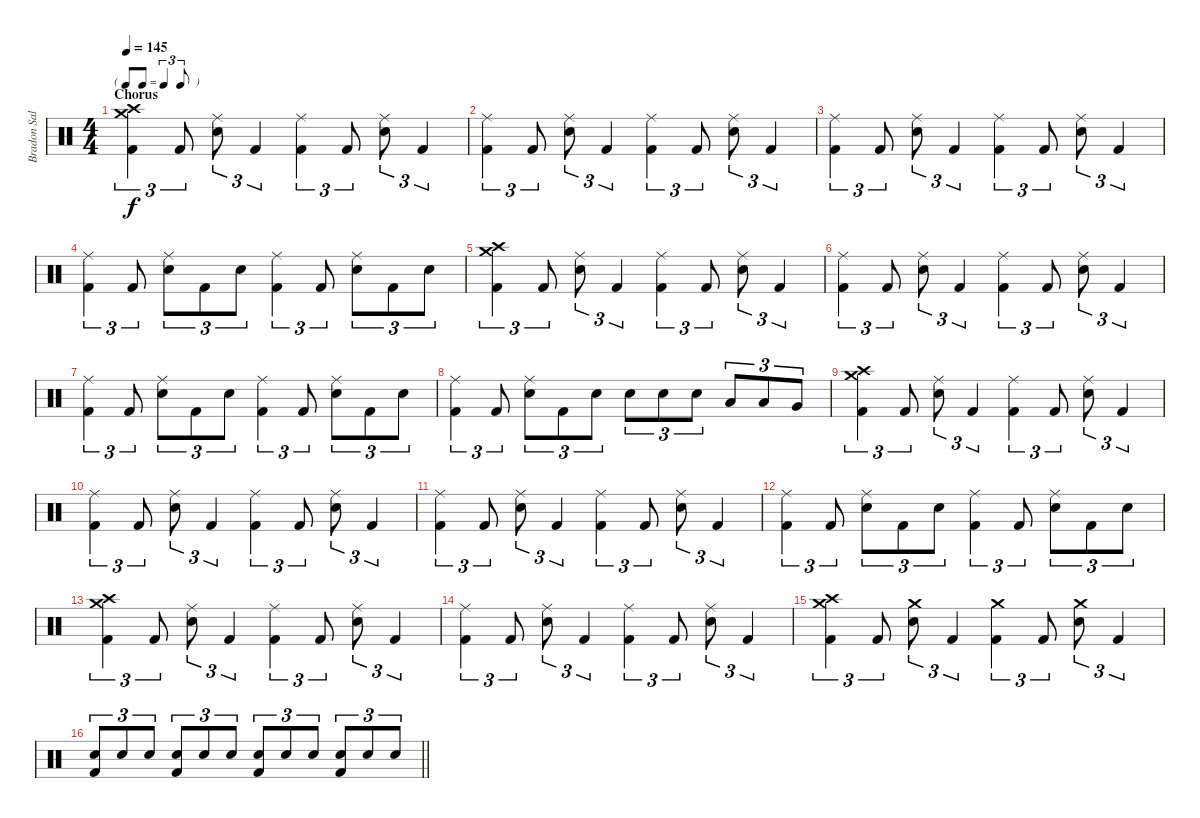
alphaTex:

\track ("Bradon Saller" "Bradon Sal") {instrument percussion}
\staff {score}
\articulation defaults
\ts (4 4)
\tf triplet8th
\section ("" "Chorus")
\tempo 145
\clef neutral
\ks c
("Crash medium (hit)" "Crash high (hit)" "Kick (hit) 2").4{tu (3 2) dy f} "Kick (hit) 2".8{tu (3 2)} ("Ride (middle)" "Electric Snare (hit)").8{tu (3 2)} "Kick (hit) 2".4{tu (3 2)} ("Ride (middle)" "Kick (hit) 2").4{tu (3 2)} "Kick (hit) 2".8{tu (3 2)} ("Ride (middle)" "Electric Snare (hit)").8{tu (3 2)} "Kick (hit) 2".4{tu (3 2)} |
("Ride (middle)" "Kick (hit) 2").4{tu (3 2)} "Kick (hit) 2".8{tu (3 2)} ("Ride (middle)" "Electric Snare (hit)").8{tu (3 2)} "Kick (hit) 2".4{tu (3 2)} ("Ride (middle)" "Kick (hit) 2").4{tu (3 2)} "Kick (hit) 2".8{tu (3 2)} ("Ride (middle)" "Electric Snare (hit)").8{tu (3 2)} "Kick (hit) 2".4{tu (3 2)} |
("Ride (middle)" "Kick (hit) 2").4{tu (3 2)} "Kick (hit) 2".8{tu (3 2)} ("Ride (middle)" "Electric Snare (hit)").8{tu (3 2)} "Kick (hit) 2".4{tu (3 2)} ("Ride (middle)" "Kick (hit) 2").4{tu (3 2)} "Kick (hit) 2".8{tu (3 2)} ("Ride (middle)" "Electric Snare (hit)").8{tu (3 2)} "Kick (hit) 2".4{tu (3 2)} |
("Ride (middle)" "Kick (hit) 2").4{tu (3 2)} "Kick (hit) 2".8{tu (3 2)} ("Ride (middle)" "Electric Snare (hit)").8{tu (3 2)} "Kick (hit) 2".8{tu (3 2)} "Electric Snare (hit)".8{tu (3 2)} ("Ride (middle)" "Kick (hit) 2").4{tu (3 2)} "Kick (hit) 2".8{tu (3 2)} ("Ride (middle)" "Electric Snare (hit)").8{tu (3 2)} "Kick (hit) 2".8{tu (3 2)} "Electric Snare (hit)".8{tu (3 2)} |
("Crash medium (hit)" "Crash high (hit)" "Kick (hit) 2").4{tu (3 2)} "Kick (hit) 2".8{tu (3 2)} ("Ride (middle)" "Electric Snare (hit)").8{tu (3 2)} "Kick (hit) 2".4{tu (3 2)} ("Ride (middle)" "Kick (hit) 2").4{tu (3 2)} "Kick (hit) 2".8{tu (3 2)} ("Ride (middle)" "Electric Snare (hit)").8{tu (3 2)} "Kick (hit) 2".4{tu (3 2)} |
("Ride (middle)" "Kick (hit) 2").4{tu (3 2)} "Kick (hit) 2".8{tu (3 2)} ("Ride (middle)" "Electric Snare (hit)").8{tu (3 2)} "Kick (hit) 2".4{tu (3 2)} ("Ride (middle)" "Kick (hit) 2").4{tu (3 2)} "Kick (hit) 2".8{tu (3 2)} ("Ride (middle)" "Electric Snare (hit)").8{tu (3 2)} "Kick (hit) 2".4{tu (3 2)} |
("Ride (middle)" "Kick (hit) 2").4{tu (3 2)} "Kick (hit) 2".8{tu (3 2)} ("Ride (middle)" "Electric Snare (hit)").8{tu (3 2)} "Kick (hit) 2".8{tu (3 2)} "Electric Snare (hit)".8{tu (3 2)} ("Ride (middle)" "Kick (hit) 2").4{tu (3 2)} "Kick (hit) 2".8{tu (3 2)} ("Ride (middle)" "Electric Snare (hit)").8{tu (3 2)} "Kick (hit) 2".8{tu (3 2)} "Electric Snare (hit)".8{tu (3 2)} |
("Ride (middle)" "Kick (hit) 2").4{tu (3 2)} "Kick (hit) 2".8{tu (3 2)} ("Ride (middle)" "Electric Snare (hit)").8{tu (3 2)} "Kick (hit) 2".8{tu (3 2)} "Electric Snare (hit)".8{tu (3 2)} "Electric Snare (hit)".8{tu (3 2)} "Electric Snare (hit)".8{tu (3 2)} "Electric Snare (hit)".8{tu (3 2)} "Low Tom (hit)".8{tu (3 2)} "Low Tom (hit)".8{tu (3 2)} "Very Low Tom (hit)".8{tu (3 2)} |
("Crash medium (hit)" "Crash high (hit)" "Kick (hit) 2").4{tu (3 2)} "Kick (hit) 2".8{tu (3 2)} ("Ride (middle)" "Electric Snare (hit)").8{tu (3 2)} "Kick (hit) 2".4{tu (3 2)} ("Ride (middle)" "Kick (hit) 2").4{tu (3 2)} "Kick (hit) 2".8{tu (3 2)} ("Ride (middle)" "Electric Snare (hit)").8{tu (3 2)} "Kick (hit) 2".4{tu (3 2)} |
("Ride (middle)" "Kick (hit) 2").4{tu (3 2)} "Kick (hit) 2".8{tu (3 2)} ("Ride (middle)" "Electric Snare (hit)").8{tu (3 2)} "Kick (hit) 2".4{tu (3 2)} ("Ride (middle)" "Kick (hit) 2").4{tu (3 2)} "Kick (hit) 2".8{tu (3 2)} ("Ride (middle)" "Electric Snare (hit)").8{tu (3 2)} "Kick (hit) 2".4{tu (3 2)} |
("Ride (middle)" "Kick (hit) 2").4{tu (3 2)} "Kick (hit) 2".8{tu (3 2)} ("Ride (middle)" "Electric Snare (hit)").8{tu (3 2)} "Kick (hit) 2".4{tu (3 2)} ("Ride (middle)" "Kick (hit) 2").4{tu (3 2)} "Kick (hit) 2".8{tu (3 2)} ("Ride (middle)" "Electric Snare (hit)").8{tu (3 2)} "Kick (hit) 2".4{tu (3 2)} |
("Ride (middle)" "Kick (hit) 2").4{tu (3 2)} "Kick (hit) 2".8{tu (3 2)} ("Ride (middle)" "Electric Snare (hit)").8{tu (3 2)} "Kick (hit) 2".8{tu (3 2)} "Electric Snare (hit)".8{tu (3 2)} ("Ride (middle)" "Kick (hit) 2").4{tu (3 2)} "Kick (hit) 2".8{tu (3 2)} ("Ride (middle)" "Electric Snare (hit)").8{tu (3 2)} "Kick (hit) 2".8{tu (3 2)} "Electric Snare (hit)".8{tu (3 2)} |
("Crash medium (hit)" "Crash high (hit)" "Kick (hit) 2").4{tu (3 2)} "Kick (hit) 2".8{tu (3 2)} ("Ride (middle)" "Electric Snare (hit)").8{tu (3 2)} "Kick (hit) 2".4{tu (3 2)} ("Ride (middle)" "Kick (hit) 2").4{tu (3 2)} "Kick (hit) 2".8{tu (3 2)} ("Ride (middle)" "Electric Snare (hit)").8{tu (3 2)} "Kick (hit) 2".4{tu (3 2)} |
("Ride (middle)" "Kick (hit) 2").4{tu (3 2)} "Kick (hit) 2".8{tu (3 2)} ("Ride (middle)" "Electric Snare (hit)").8{tu (3 2)} "Kick (hit) 2".4{tu (3 2)} ("Ride (middle)" "Kick (hit) 2").4{tu (3 2)} "Kick (hit) 2".8{tu (3 2)} ("Ride (middle)" "Electric Snare (hit)").8{tu (3 2)} "Kick (hit) 2".4{tu (3 2)} |
("Crash medium (hit)" "Crash high (hit)" "Kick (hit) 2").4{tu (3 2)} "Kick (hit) 2".8{tu (3 2)} ("Crash medium (hit)" "Electric Snare (hit)").8{tu (3 2)} "Kick (hit) 2".4{tu (3 2)} ("Crash medium (hit)" "Kick (hit) 2").4{tu (3 2)} "Kick (hit) 2".8{tu (3 2)} ("Crash medium (hit)" "Electric Snare (hit)").8{tu (3 2)} "Kick (hit) 2".4{tu (3 2)} |
\barLineRight lightlight
("Electric Snare (hit)" "Kick (hit) 2").8{tu (3 2)} "Electric Snare (hit)".8{tu (3 2)} "Electric Snare (hit)".8{tu (3 2)} ("Electric Snare (hit)" "Kick (hit) 2").8{tu (3 2)} "Electric Snare (hit)".8{tu (3 2)} "Electric Snare (hit)".8{tu (3 2)} ("Electric Snare (hit)" "Kick (hit) 2").8{tu (3 2)} "Electric Snare (hit)".8{tu (3 2)} "Electric Snare (hit)".8{tu (3 2)} ("Electric Snare (hit)" "Kick (hit) 2").8{tu (3 2)} "Electric Snare (hit)".8{tu (3 2)} "Electric Snare (hit)".8{tu (3 2)}
